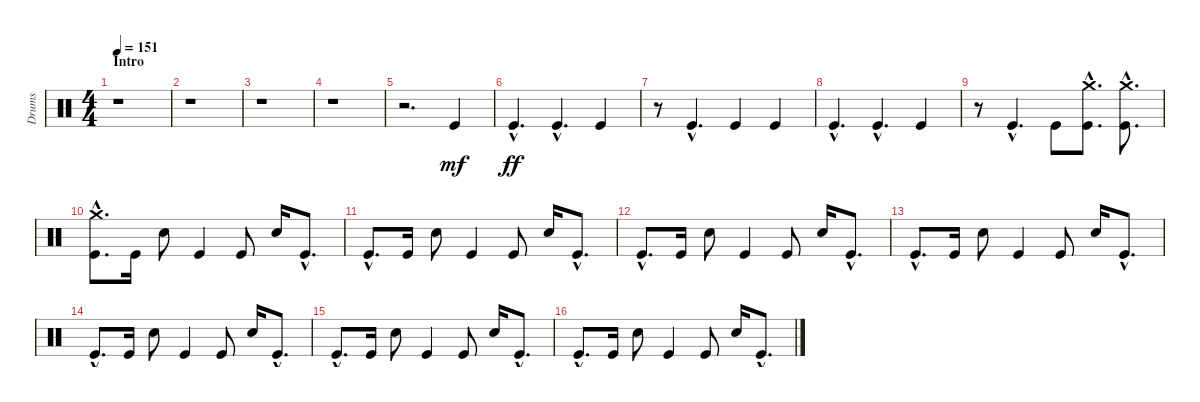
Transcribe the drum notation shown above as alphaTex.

\track ("Drums" "Drums") {instrument percussion}
\staff {score}
\articulation defaults
\ts (4 4)
\section ("" "Intro")
\tempo 151
\clef neutral
\ks c
r.1{dy mf} |
r.1 |
r.1 |
r.1 |
r.2{d} "Kick (hit)".4 |
"Kick (hit)"{hac}.4{d dy ff} "Kick (hit)"{hac}.4{d} "Kick (hit)".4 |
r.8 "Kick (hit)"{hac}.4{d} "Kick (hit)".4 "Kick (hit)".4 |
"Kick (hit)"{hac}.4{d} "Kick (hit)"{hac}.4{d} "Kick (hit)".4 |
r.8 "Kick (hit)"{hac}.4{d} "Kick (hit)".8 ("Crash medium (hit)"{hac} "Kick (hit)"{hac}).8{d} ("Crash medium (hit)"{hac} "Kick (hit)"{hac}).8{d} |
("Crash medium (hit)"{hac} "Kick (hit)"{hac}).8{d} "Kick (hit)".16 "Snare (hit) 2".8 "Kick (hit)".4 "Kick (hit)".8 "Snare (hit) 2".16 "Kick (hit)"{hac}.8{d} |
"Kick (hit)"{hac}.8{d} "Kick (hit)".16 "Snare (hit) 2".8 "Kick (hit)".4 "Kick (hit)".8 "Snare (hit) 2".16 "Kick (hit)"{hac}.8{d} |
"Kick (hit)"{hac}.8{d} "Kick (hit)".16 "Snare (hit) 2".8 "Kick (hit)".4 "Kick (hit)".8 "Snare (hit) 2".16 "Kick (hit)"{hac}.8{d} |
"Kick (hit)"{hac}.8{d} "Kick (hit)".16 "Snare (hit) 2".8 "Kick (hit)".4 "Kick (hit)".8 "Snare (hit) 2".16 "Kick (hit)"{hac}.8{d} |
"Kick (hit)"{hac}.8{d} "Kick (hit)".16 "Snare (hit) 2".8 "Kick (hit)".4 "Kick (hit)".8 "Snare (hit) 2".16 "Kick (hit)"{hac}.8{d} |
"Kick (hit)"{hac}.8{d} "Kick (hit)".16 "Snare (hit) 2".8 "Kick (hit)".4 "Kick (hit)".8 "Snare (hit) 2".16 "Kick (hit)"{hac}.8{d} |
"Kick (hit)"{hac}.8{d} "Kick (hit)".16 "Snare (hit) 2".8 "Kick (hit)".4 "Kick (hit)".8 "Snare (hit) 2".16 "Kick (hit)"{hac}.8{d}
